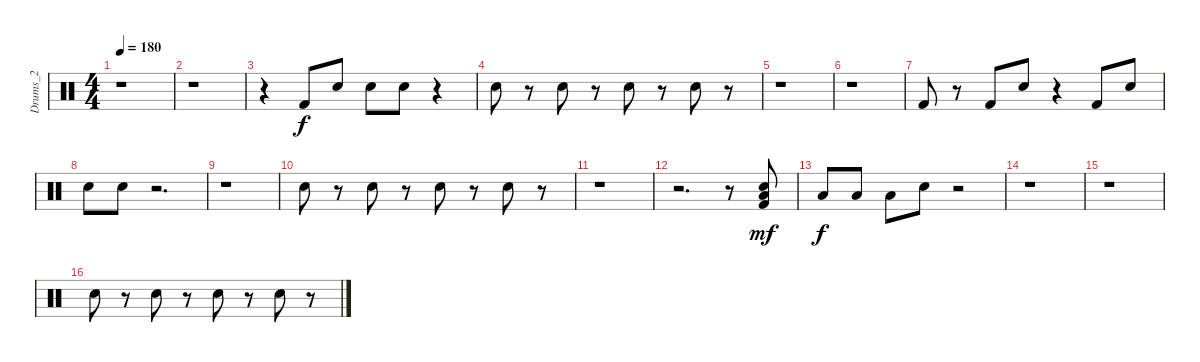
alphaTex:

\track ("Drums_2" "Drums_2") {instrument percussion}
\staff {score}
\articulation defaults
\ts (4 4)
\tempo 180
\clef neutral
\ks c
r.1{dy f} |
r.1 |
r.4 "Kick (hit) 2".8 "Snare (hit) 2".8 "Snare (hit) 2".8 "Snare (hit) 2".8 r.4 |
"Snare (hit) 2".8 r.8 "Snare (hit) 2".8 r.8 "Snare (hit) 2".8 r.8 "Snare (hit) 2".8 r.8 |
r.1 |
r.1 |
"Kick (hit) 2".8 r.8 "Kick (hit) 2".8 "Snare (hit) 2".8 r.4 "Kick (hit) 2".8 "Snare (hit) 2".8 |
"Snare (hit) 2".8 "Snare (hit) 2".8 r.2{d} |
r.1 |
"Snare (hit) 2".8 r.8 "Snare (hit) 2".8 r.8 "Snare (hit) 2".8 r.8 "Snare (hit) 2".8 r.8 |
r.1 |
r.2{d} r.8 ("Kick (hit) 2" "Snare (hit) 2" "Low Floor Tom (hit)").8{dy mf} |
"Low Floor Tom (hit)".8{dy f} "Low Floor Tom (hit)".8 "Low Floor Tom (hit)".8 "Snare (hit) 2".8 r.2 |
r.1 |
r.1 |
"Snare (hit) 2".8 r.8 "Snare (hit) 2".8 r.8 "Snare (hit) 2".8 r.8 "Snare (hit) 2".8 r.8
